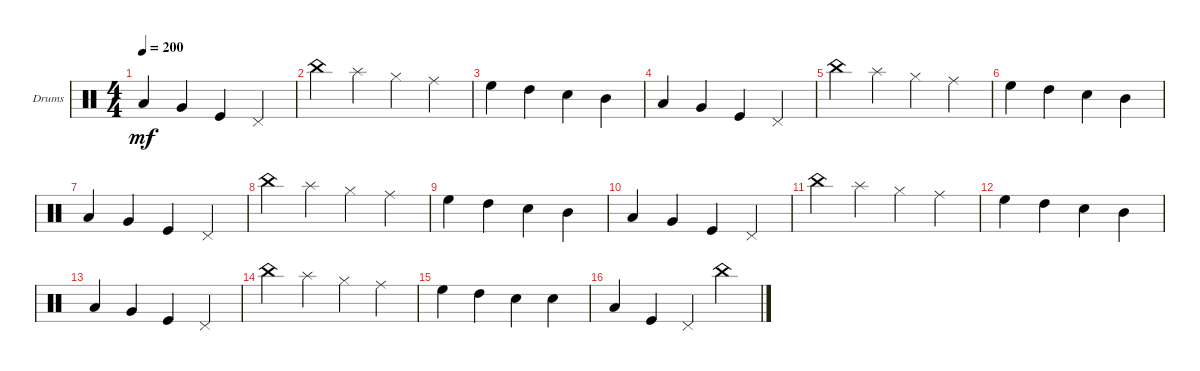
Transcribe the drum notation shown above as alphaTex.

\defaultSystemsLayout 4
\bracketExtendMode groupsimilarinstruments
\firstSystemTrackNameOrientation horizontal
\otherSystemsTrackNameOrientation horizontal
\track ("Drumkit" "Drums") {instrument percussion}
\staff {score}
\articulation defaults
\ts (4 4)
\tempo 200
\clef neutral
\ks c "Low Tom (hit)".4{dy mf} "Very Low Tom (hit)".4 "Kick (hit)".4 "Pedal Hi-Hat (hit)".4
|
"China (hit)".4 "Splash (hit)".4 "Hi-Hat (closed)".4 "Ride (middle)".4 |
"High Floor Tom (hit)".4 "High Tom (hit)".4 "Snare (hit) 2".4 "Mid Tom (hit)".4 |
"Low Tom (hit)".4 "Very Low Tom (hit)".4 "Kick (hit)".4 "Pedal Hi-Hat (hit)".4 |
"China (hit)".4 "Splash (hit)".4 "Hi-Hat (closed)".4 "Ride (middle)".4 |
"High Floor Tom (hit)".4 "High Tom (hit)".4 "Snare (hit) 2".4 "Mid Tom (hit)".4 |
"Low Tom (hit)".4 "Very Low Tom (hit)".4 "Kick (hit)".4 "Pedal Hi-Hat (hit)".4 |
"China (hit)".4 "Splash (hit)".4 "Hi-Hat (closed)".4 "Ride (middle)".4 |
"High Floor Tom (hit)".4 "High Tom (hit)".4 "Snare (hit) 2".4 "Mid Tom (hit)".4 |
"Low Tom (hit)".4 "Very Low Tom (hit)".4 "Kick (hit)".4 "Pedal Hi-Hat (hit)".4 |
"China (hit)".4 "Splash (hit)".4 "Hi-Hat (closed)".4 "Ride (middle)".4 |
"High Floor Tom (hit)".4 "High Tom (hit)".4 "Snare (hit) 2".4 "Mid Tom (hit)".4 |
"Low Tom (hit)".4 "Very Low Tom (hit)".4 "Kick (hit)".4 "Pedal Hi-Hat (hit)".4 |
"China (hit)".4 "Splash (hit)".4 "Hi-Hat (closed)".4 "Ride (middle)".4 |
"High Floor Tom (hit)".4 "High Tom (hit)".4 "Snare (hit) 2".4 "Snare (hit) 2".4 |
"Low Tom (hit)".4 "Kick (hit)".4 "Pedal Hi-Hat (hit)".4 "China (hit)".4
